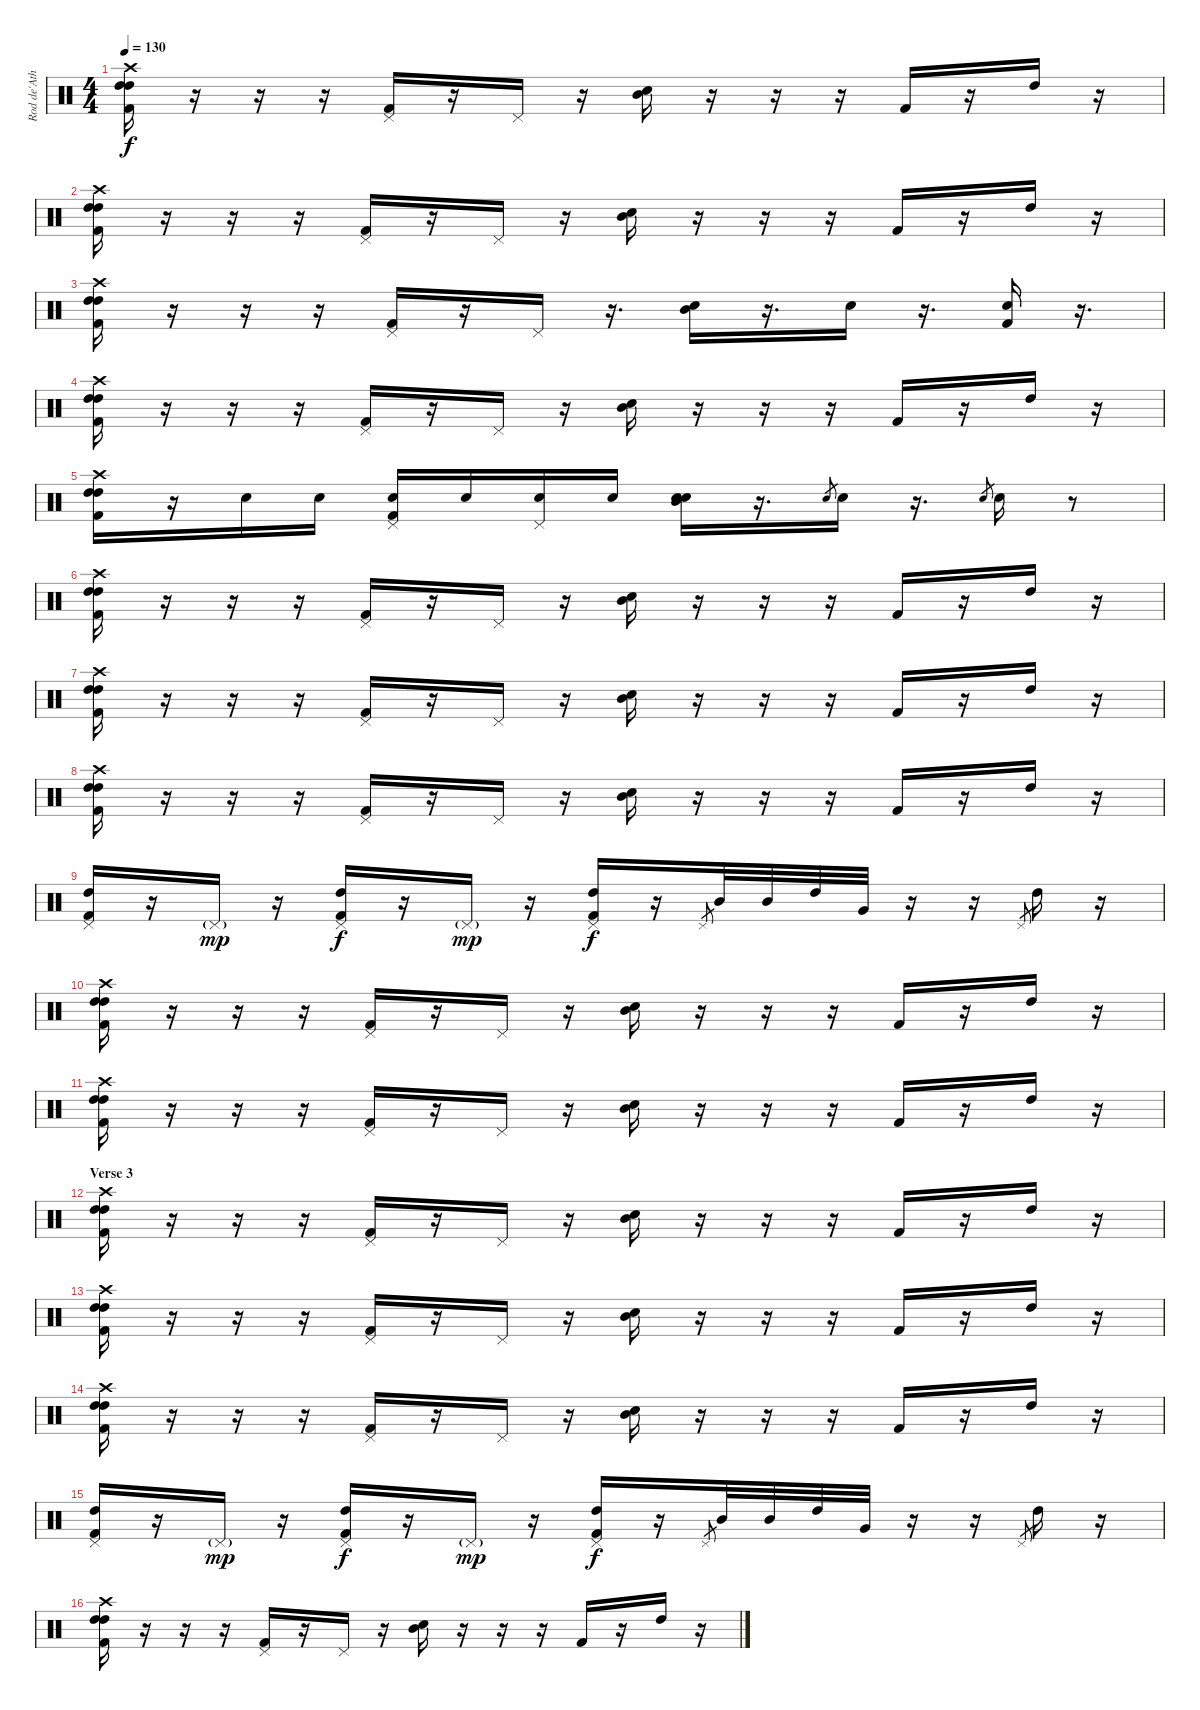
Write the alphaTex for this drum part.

\track ("Rod de'Ath" "Rod de'Ath") {instrument percussion}
\staff {score}
\articulation defaults
\ts (4 4)
\tempo 130
\clef neutral
\ks c
("Crash high (hit)" "High Tom (hit)" "High Tom (hit)" "Kick (hit) 2").16{dy f} r.16 r.16 r.16 ("Pedal Hi-Hat (hit)" "Kick (hit) 2").16 r.16 "Pedal Hi-Hat (hit)".16 r.16 ("Electric Snare (hit)" "Mid Tom (hit)").16 r.16 r.16 r.16 "Kick (hit) 2".16 r.16 "High Tom (hit)".16 r.16 |
("Crash high (hit)" "High Tom (hit)" "High Tom (hit)" "Kick (hit) 2").16 r.16 r.16 r.16 ("Pedal Hi-Hat (hit)" "Kick (hit) 2").16 r.16 "Pedal Hi-Hat (hit)".16 r.16 ("Electric Snare (hit)" "Mid Tom (hit)").16 r.16 r.16 r.16 "Kick (hit) 2".16 r.16 "High Tom (hit)".16 r.16 |
("Crash high (hit)" "High Tom (hit)" "High Tom (hit)" "Kick (hit) 2").16 r.16 r.16 r.16 ("Pedal Hi-Hat (hit)" "Kick (hit) 2").16 r.16 "Pedal Hi-Hat (hit)".16 r.16{d} ("Electric Snare (hit)" "Mid Tom (hit)").16 r.16{d} "Electric Snare (hit)".16 r.16{d} ("Electric Snare (hit)" "Kick (hit) 2").16 r.16{d} |
("Crash high (hit)" "High Tom (hit)" "High Tom (hit)" "Kick (hit) 2").16 r.16 r.16 r.16 ("Pedal Hi-Hat (hit)" "Kick (hit) 2").16 r.16 "Pedal Hi-Hat (hit)".16 r.16 ("Electric Snare (hit)" "Mid Tom (hit)").16 r.16 r.16 r.16 "Kick (hit) 2".16 r.16 "High Tom (hit)".16 r.16 |
("Crash high (hit)" "High Tom (hit)" "High Tom (hit)" "Kick (hit) 2").16 r.16 "Electric Snare (hit)".16 "Electric Snare (hit)".16 ("Pedal Hi-Hat (hit)" "Electric Snare (hit)" "Kick (hit) 2").16 "Electric Snare (hit)".16 ("Pedal Hi-Hat (hit)" "Electric Snare (hit)").16 "Electric Snare (hit)".16 ("Electric Snare (hit)" "Mid Tom (hit)" "Snare (hit) 2").16 r.16{d} "Snare (hit) 2".8{gr} "Snare (hit) 2".16 r.16{d} "Snare (hit) 2".8{gr} "Snare (hit) 2".16 r.8 |
("Crash high (hit)" "High Tom (hit)" "High Tom (hit)" "Kick (hit) 2").16 r.16 r.16 r.16 ("Pedal Hi-Hat (hit)" "Kick (hit) 2").16 r.16 "Pedal Hi-Hat (hit)".16 r.16 ("Electric Snare (hit)" "Mid Tom (hit)").16 r.16 r.16 r.16 "Kick (hit) 2".16 r.16 "High Tom (hit)".16 r.16 |
("Crash high (hit)" "High Tom (hit)" "High Tom (hit)" "Kick (hit) 2").16 r.16 r.16 r.16 ("Pedal Hi-Hat (hit)" "Kick (hit) 2").16 r.16 "Pedal Hi-Hat (hit)".16 r.16 ("Electric Snare (hit)" "Mid Tom (hit)").16 r.16 r.16 r.16 "Kick (hit) 2".16 r.16 "High Tom (hit)".16 r.16 |
("Crash high (hit)" "High Tom (hit)" "High Tom (hit)" "Kick (hit) 2").16 r.16 r.16 r.16 ("Pedal Hi-Hat (hit)" "Kick (hit) 2").16 r.16 "Pedal Hi-Hat (hit)".16 r.16 ("Electric Snare (hit)" "Mid Tom (hit)").16 r.16 r.16 r.16 "Kick (hit) 2".16 r.16 "High Tom (hit)".16 r.16 |
("Pedal Hi-Hat (hit)" "High Tom (hit)" "Kick (hit) 2").16 r.16 "Pedal Hi-Hat (hit)"{g}.16{dy mp} r.16 ("Pedal Hi-Hat (hit)" "High Tom (hit)" "Kick (hit) 2").16{dy f} r.16 "Pedal Hi-Hat (hit)"{g}.16{dy mp} r.16 ("Pedal Hi-Hat (hit)" "High Tom (hit)" "Kick (hit) 2").16{dy f} r.16 "Pedal Hi-Hat (hit)".8{gr} "Mid Tom (hit)".32 "Mid Tom (hit)".32 "High Tom (hit)".32 "Very Low Tom (hit)".32 r.16 r.16 "Pedal Hi-Hat (hit)".8{gr} "High Tom (hit)".16 r.16 |
("Crash high (hit)" "High Tom (hit)" "High Tom (hit)" "Kick (hit) 2").16 r.16 r.16 r.16 ("Pedal Hi-Hat (hit)" "Kick (hit) 2").16 r.16 "Pedal Hi-Hat (hit)".16 r.16 ("Electric Snare (hit)" "Mid Tom (hit)").16 r.16 r.16 r.16 "Kick (hit) 2".16 r.16 "High Tom (hit)".16 r.16 |
("Crash high (hit)" "High Tom (hit)" "High Tom (hit)" "Kick (hit) 2").16 r.16 r.16 r.16 ("Pedal Hi-Hat (hit)" "Kick (hit) 2").16 r.16 "Pedal Hi-Hat (hit)".16 r.16 ("Electric Snare (hit)" "Mid Tom (hit)").16 r.16 r.16 r.16 "Kick (hit) 2".16 r.16 "High Tom (hit)".16 r.16 |
\section ("" "Verse 3")
("Crash high (hit)" "High Tom (hit)" "High Tom (hit)" "Kick (hit) 2").16 r.16 r.16 r.16 ("Pedal Hi-Hat (hit)" "Kick (hit) 2").16 r.16 "Pedal Hi-Hat (hit)".16 r.16 ("Electric Snare (hit)" "Mid Tom (hit)").16 r.16 r.16 r.16 "Kick (hit) 2".16 r.16 "High Tom (hit)".16 r.16 |
("Crash high (hit)" "High Tom (hit)" "High Tom (hit)" "Kick (hit) 2").16 r.16 r.16 r.16 ("Pedal Hi-Hat (hit)" "Kick (hit) 2").16 r.16 "Pedal Hi-Hat (hit)".16 r.16 ("Electric Snare (hit)" "Mid Tom (hit)").16 r.16 r.16 r.16 "Kick (hit) 2".16 r.16 "High Tom (hit)".16 r.16 |
("Crash high (hit)" "High Tom (hit)" "High Tom (hit)" "Kick (hit) 2").16 r.16 r.16 r.16 ("Pedal Hi-Hat (hit)" "Kick (hit) 2").16 r.16 "Pedal Hi-Hat (hit)".16 r.16 ("Electric Snare (hit)" "Mid Tom (hit)").16 r.16 r.16 r.16 "Kick (hit) 2".16 r.16 "High Tom (hit)".16 r.16 |
("Pedal Hi-Hat (hit)" "High Tom (hit)" "Kick (hit) 2").16 r.16 "Pedal Hi-Hat (hit)"{g}.16{dy mp} r.16 ("Pedal Hi-Hat (hit)" "High Tom (hit)" "Kick (hit) 2").16{dy f} r.16 "Pedal Hi-Hat (hit)"{g}.16{dy mp} r.16 ("Pedal Hi-Hat (hit)" "High Tom (hit)" "Kick (hit) 2").16{dy f} r.16 "Pedal Hi-Hat (hit)".8{gr} "Mid Tom (hit)".32 "Mid Tom (hit)".32 "High Tom (hit)".32 "Very Low Tom (hit)".32 r.16 r.16 "Pedal Hi-Hat (hit)".8{gr} "High Tom (hit)".16 r.16 |
("Crash high (hit)" "High Tom (hit)" "High Tom (hit)" "Kick (hit) 2").16 r.16 r.16 r.16 ("Pedal Hi-Hat (hit)" "Kick (hit) 2").16 r.16 "Pedal Hi-Hat (hit)".16 r.16 ("Electric Snare (hit)" "Mid Tom (hit)").16 r.16 r.16 r.16 "Kick (hit) 2".16 r.16 "High Tom (hit)".16 r.16
